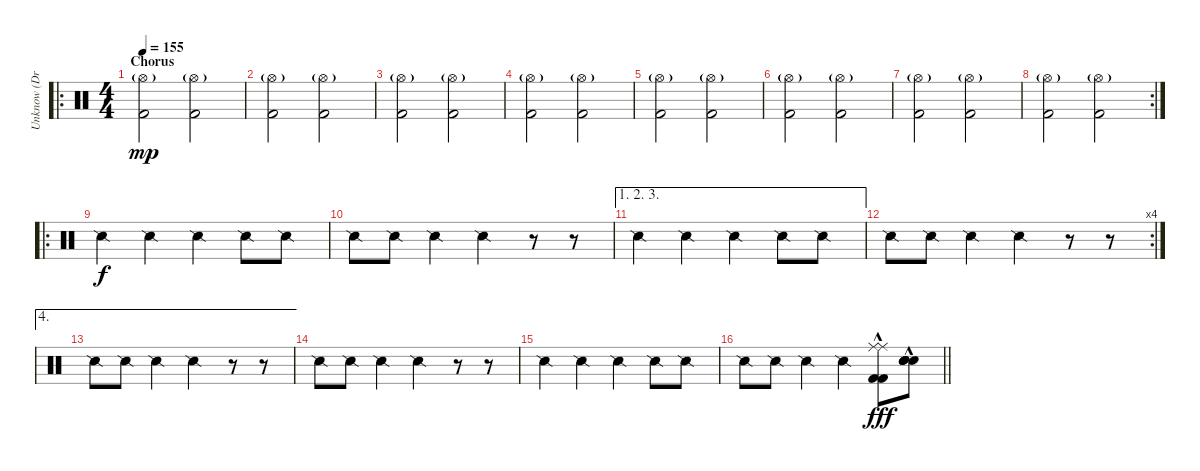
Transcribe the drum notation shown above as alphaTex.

\track ("Unknow (Drumer)" "Unknow (Dr") {instrument percussion}
\staff {score}
\articulation defaults
\ro
\ts (4 4)
\section ("" "Chorus")
\tempo 155
\clef neutral
\ks c
("Hi-Hat (open)"{g} "Kick (hit) 2").2{dy mp} ("Hi-Hat (open)"{g} "Kick (hit) 2").2 |
("Hi-Hat (open)"{g} "Kick (hit) 2").2 ("Hi-Hat (open)"{g} "Kick (hit) 2").2 |
("Hi-Hat (open)"{g} "Kick (hit) 2").2 ("Hi-Hat (open)"{g} "Kick (hit) 2").2 |
("Hi-Hat (open)"{g} "Kick (hit) 2").2 ("Hi-Hat (open)"{g} "Kick (hit) 2").2 |
("Hi-Hat (open)"{g} "Kick (hit) 2").2 ("Hi-Hat (open)"{g} "Kick (hit) 2").2 |
("Hi-Hat (open)"{g} "Kick (hit) 2").2 ("Hi-Hat (open)"{g} "Kick (hit) 2").2 |
("Hi-Hat (open)"{g} "Kick (hit) 2").2 ("Hi-Hat (open)"{g} "Kick (hit) 2").2 |
\rc 2
("Hi-Hat (open)"{g} "Kick (hit) 2").2 ("Hi-Hat (open)"{g} "Kick (hit) 2").2 |
\ro "Snare (side stick) 2".4{dy f} "Snare (side stick) 2".4 "Snare (side stick) 2".4 "Snare (side stick) 2".8 "Snare (side stick) 2".8
|
"Snare (side stick) 2".8 "Snare (side stick) 2".8 "Snare (side stick) 2".4 "Snare (side stick) 2".4 r.8 r.8 |
\ae (1 2 3)
"Snare (side stick) 2".4 "Snare (side stick) 2".4 "Snare (side stick) 2".4 "Snare (side stick) 2".8 "Snare (side stick) 2".8 |
\rc 4 "Snare (side stick) 2".8 "Snare (side stick) 2".8 "Snare (side stick) 2".4 "Snare (side stick) 2".4
r.8 r.8 |
\ae 4 "Snare (side stick) 2".8 "Snare (side stick) 2".8 "Snare (side stick) 2".4 "Snare (side stick) 2".4
r.8 r.8 |
"Snare (side stick) 2".8 "Snare (side stick) 2".8 "Snare (side stick) 2".4 "Snare (side stick) 2".4 r.8 r.8 |
"Snare (side stick) 2".4 "Snare (side stick) 2".4 "Snare (side stick) 2".4 "Snare (side stick) 2".8 "Snare (side stick) 2".8 |
\barLineRight lightlight "Snare (side stick) 2".8 "Snare (side stick) 2".8 "Snare (side stick) 2".4 "Snare (side stick) 2".4
("Ride (middle)" "Ride (middle)" "Kick (hit) 2"{hac} "Kick (hit) 2"{hac}).8{dy fff} ("Electric Snare (hit)" "Electric Snare (hit)"{hac} "Snare (hit) 2"{hac} "Snare (hit) 2"{hac}).8
